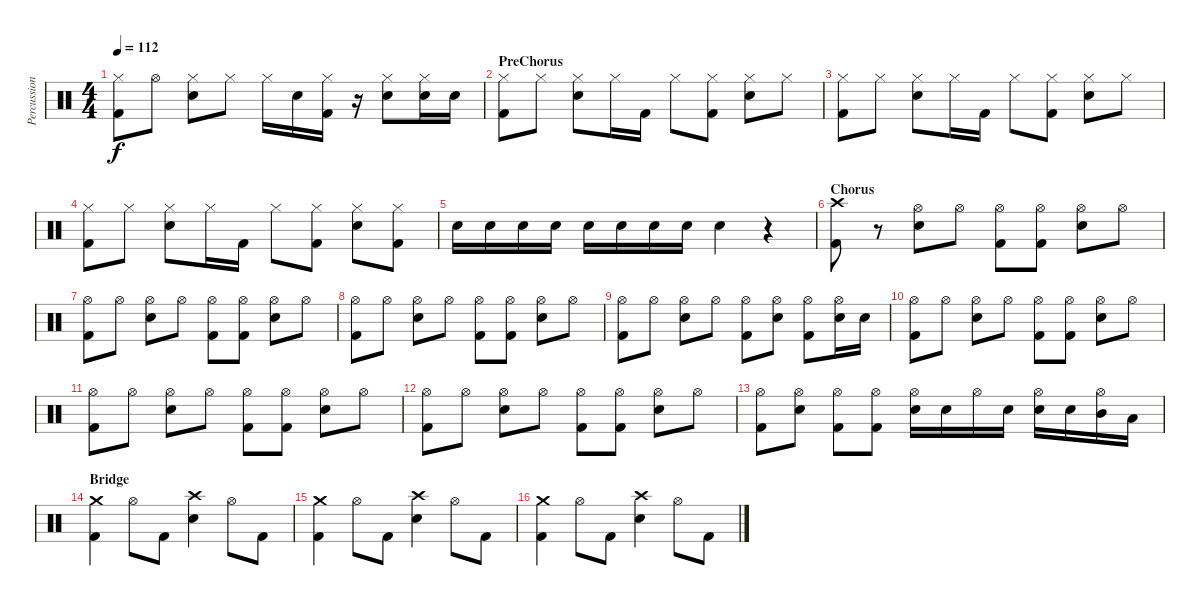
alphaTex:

\track ("Percussion" "Percussion") {instrument percussion}
\staff {score}
\articulation defaults
\ts (4 4)
\tempo 112
\clef neutral
\ks c
("Hi-Hat (closed)" "Kick (hit) 2").8{dy f} "Hi-Hat (open)".8 ("Hi-Hat (closed)" "Snare (hit) 2").8 "Hi-Hat (closed)".8 "Hi-Hat (closed)".16 "Snare (hit) 2".16 ("Hi-Hat (closed)" "Kick (hit) 2").16 r.16 ("Hi-Hat (closed)" "Snare (hit) 2").8 ("Hi-Hat (closed)" "Snare (hit) 2").16 "Snare (hit) 2".16 |
\section ("" "PreChorus")
("Hi-Hat (closed)" "Kick (hit) 2").8 "Hi-Hat (closed)".8 ("Hi-Hat (closed)" "Snare (hit) 2").8 "Hi-Hat (closed)".16 "Kick (hit) 2".16 "Hi-Hat (closed)".8 ("Hi-Hat (closed)" "Kick (hit) 2").8 ("Hi-Hat (closed)" "Snare (hit) 2").8 "Hi-Hat (closed)".8 |
("Hi-Hat (closed)" "Kick (hit) 2").8 "Hi-Hat (closed)".8 ("Hi-Hat (closed)" "Snare (hit) 2").8 "Hi-Hat (closed)".16 "Kick (hit) 2".16 "Hi-Hat (closed)".8 ("Hi-Hat (closed)" "Kick (hit) 2").8 ("Hi-Hat (closed)" "Snare (hit) 2").8 "Hi-Hat (closed)".8 |
("Hi-Hat (closed)" "Kick (hit) 2").8 "Hi-Hat (closed)".8 ("Hi-Hat (closed)" "Snare (hit) 2").8 "Hi-Hat (closed)".16 "Kick (hit) 2".16 "Hi-Hat (closed)".8 ("Hi-Hat (closed)" "Kick (hit) 2").8 ("Hi-Hat (closed)" "Snare (hit) 2").8 ("Hi-Hat (closed)" "Kick (hit) 2").8 |
"Snare (hit) 2".16 "Snare (hit) 2".16 "Snare (hit) 2".16 "Snare (hit) 2".16 "Snare (hit) 2".16 "Snare (hit) 2".16 "Snare (hit) 2".16 "Snare (hit) 2".16 "Snare (hit) 2".4 r.4 |
\section ("" "Chorus")
("Crash high (hit)" "Kick (hit) 2").8 r.8 ("Hi-Hat (open)" "Snare (hit) 2").8 "Hi-Hat (open)".8 ("Hi-Hat (open)" "Kick (hit) 2").8 ("Hi-Hat (open)" "Kick (hit) 2").8 ("Hi-Hat (open)" "Snare (hit) 2").8 "Hi-Hat (open)".8 |
("Hi-Hat (open)" "Kick (hit) 2").8 "Hi-Hat (open)".8 ("Hi-Hat (open)" "Snare (hit) 2").8 "Hi-Hat (open)".8 ("Hi-Hat (open)" "Kick (hit) 2").8 ("Hi-Hat (open)" "Kick (hit) 2").8 ("Hi-Hat (open)" "Snare (hit) 2").8 "Hi-Hat (open)".8 |
("Hi-Hat (open)" "Kick (hit) 2").8 "Hi-Hat (open)".8 ("Hi-Hat (open)" "Snare (hit) 2").8 "Hi-Hat (open)".8 ("Hi-Hat (open)" "Kick (hit) 2").8 ("Hi-Hat (open)" "Kick (hit) 2").8 ("Hi-Hat (open)" "Snare (hit) 2").8 "Hi-Hat (open)".8 |
("Hi-Hat (open)" "Kick (hit) 2").8 "Hi-Hat (open)".8 ("Hi-Hat (open)" "Snare (hit) 2").8 "Hi-Hat (open)".8 ("Hi-Hat (open)" "Kick (hit) 2").8 ("Hi-Hat (open)" "Snare (hit) 2").8 ("Hi-Hat (open)" "Kick (hit) 2").8 ("Hi-Hat (open)" "Snare (hit) 2").16 "Snare (hit) 2".16 |
("Hi-Hat (open)" "Kick (hit) 2").8 "Hi-Hat (open)".8 ("Hi-Hat (open)" "Snare (hit) 2").8 "Hi-Hat (open)".8 ("Hi-Hat (open)" "Kick (hit) 2").8 ("Hi-Hat (open)" "Kick (hit) 2").8 ("Hi-Hat (open)" "Snare (hit) 2").8 "Hi-Hat (open)".8 |
("Hi-Hat (open)" "Kick (hit) 2").8 "Hi-Hat (open)".8 ("Hi-Hat (open)" "Snare (hit) 2").8 "Hi-Hat (open)".8 ("Hi-Hat (open)" "Kick (hit) 2").8 ("Hi-Hat (open)" "Kick (hit) 2").8 ("Hi-Hat (open)" "Snare (hit) 2").8 "Hi-Hat (open)".8 |
("Hi-Hat (open)" "Kick (hit) 2").8 "Hi-Hat (open)".8 ("Hi-Hat (open)" "Snare (hit) 2").8 "Hi-Hat (open)".8 ("Hi-Hat (open)" "Kick (hit) 2").8 ("Hi-Hat (open)" "Kick (hit) 2").8 ("Hi-Hat (open)" "Snare (hit) 2").8 "Hi-Hat (open)".8 |
("Hi-Hat (open)" "Kick (hit) 2").8 ("Hi-Hat (open)" "Snare (hit) 2").8 ("Hi-Hat (open)" "Kick (hit) 2").8 ("Hi-Hat (open)" "Kick (hit) 2").8 ("Hi-Hat (open)" "Snare (hit) 2").16 "Snare (hit) 2".16 "Hi-Hat (open)".16 "Snare (hit) 2".16 ("Hi-Hat (open)" "Snare (hit) 2").16 "Snare (hit) 2".16 ("Hi-Hat (open)" "Mid Tom (hit)").16 "Low Tom (hit)".16 |
\section ("" "Bridge")
("Crash medium (hit)" "Kick (hit) 2").4 "Hi-Hat (open)".8 "Kick (hit) 2".8 ("Crash high (hit)" "Snare (hit) 2").4 "Hi-Hat (open)".8 "Kick (hit) 2".8 |
("Crash medium (hit)" "Kick (hit) 2").4 "Hi-Hat (open)".8 "Kick (hit) 2".8 ("Crash high (hit)" "Snare (hit) 2").4 "Hi-Hat (open)".8 "Kick (hit) 2".8 |
("Crash medium (hit)" "Kick (hit) 2").4 "Hi-Hat (open)".8 "Kick (hit) 2".8 ("Crash high (hit)" "Snare (hit) 2").4 "Hi-Hat (open)".8 "Kick (hit) 2".8
